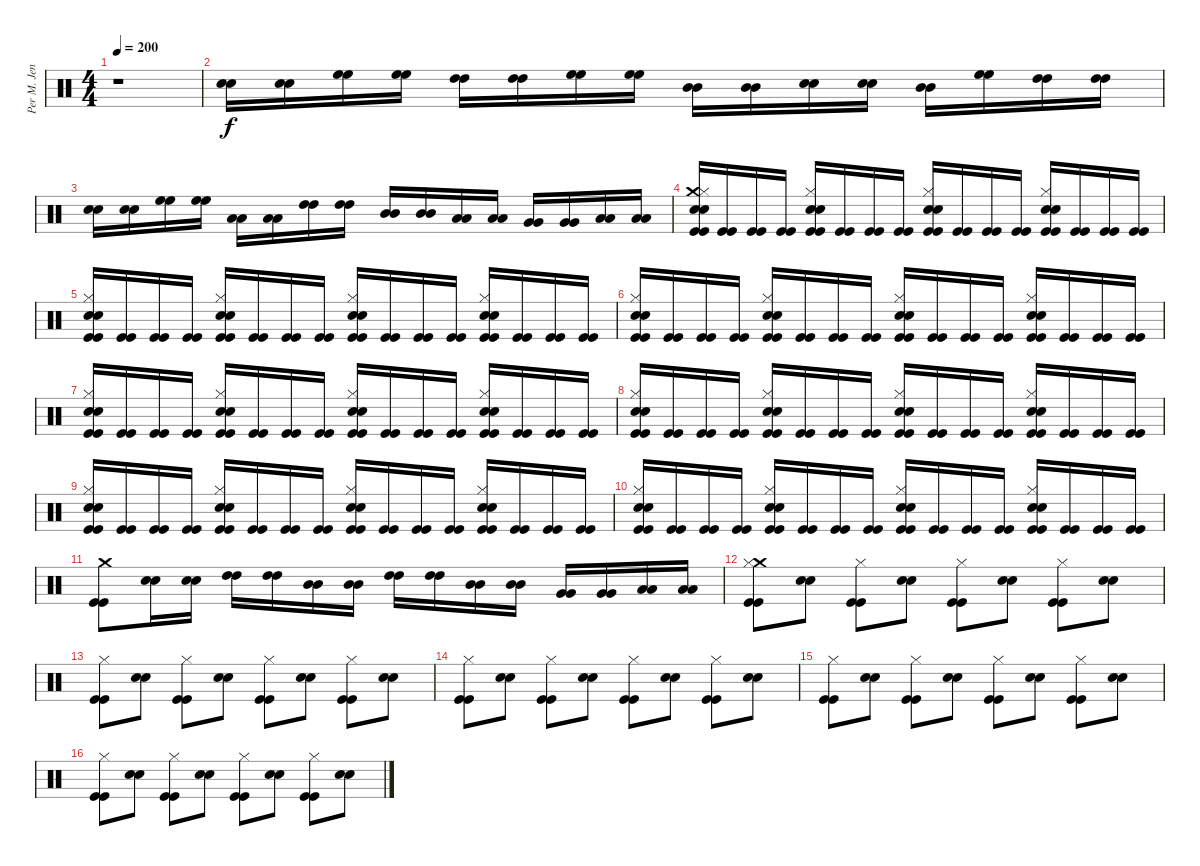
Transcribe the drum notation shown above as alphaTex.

\track ("Per M. Jensen" "Per M. Jen") {instrument percussion}
\staff {score}
\articulation defaults
\ts (4 4)
\tempo 200
\clef neutral
\ks c
r.1{dy f} |
("Snare (hit) 2" "Snare (hit) 2").16 ("Snare (hit) 2" "Snare (hit) 2").16 ("High Floor Tom (hit)" "High Floor Tom (hit)").16 ("High Floor Tom (hit)" "High Floor Tom (hit)").16 ("High Tom (hit)" "High Tom (hit)").16 ("High Tom (hit)" "High Tom (hit)").16 ("High Floor Tom (hit)" "High Floor Tom (hit)").16 ("High Floor Tom (hit)" "High Floor Tom (hit)").16 ("Mid Tom (hit)" "Mid Tom (hit)").16 ("Mid Tom (hit)" "Mid Tom (hit)").16 ("Snare (hit) 2" "Snare (hit) 2").16 ("Snare (hit) 2" "Snare (hit) 2").16 ("Mid Tom (hit)" "Mid Tom (hit)").16 ("High Floor Tom (hit)" "High Floor Tom (hit)").16 ("High Tom (hit)" "High Tom (hit)").16 ("High Tom (hit)" "High Tom (hit)").16 |
("Snare (hit) 2" "Snare (hit) 2").16 ("Snare (hit) 2" "Snare (hit) 2").16 ("High Floor Tom (hit)" "High Floor Tom (hit)").16 ("High Floor Tom (hit)" "High Floor Tom (hit)").16 ("Low Tom (hit)" "Low Tom (hit)").16 ("Low Tom (hit)" "Low Tom (hit)").16 ("High Tom (hit)" "High Tom (hit)").16 ("High Tom (hit)" "High Tom (hit)").16 ("Mid Tom (hit)" "Mid Tom (hit)").16 ("Mid Tom (hit)" "Mid Tom (hit)").16 ("Low Tom (hit)" "Low Tom (hit)").16 ("Low Tom (hit)" "Low Tom (hit)").16 ("Very Low Tom (hit)" "Very Low Tom (hit)").16 ("Very Low Tom (hit)" "Very Low Tom (hit)").16 ("Low Floor Tom (hit)" "Low Floor Tom (hit)").16 ("Low Floor Tom (hit)" "Low Floor Tom (hit)").16 |
("Crash medium (hit)" "Hi-Hat (closed)" "Snare (hit) 2" "Snare (hit) 2" "Kick (hit)" "Kick (hit)").16 ("Kick (hit)" "Kick (hit)").16 ("Kick (hit)" "Kick (hit)").16 ("Kick (hit)" "Kick (hit)").16 ("Hi-Hat (closed)" "Snare (hit) 2" "Snare (hit) 2" "Kick (hit)" "Kick (hit)").16 ("Kick (hit)" "Kick (hit)").16 ("Kick (hit)" "Kick (hit)").16 ("Kick (hit)" "Kick (hit)").16 ("Hi-Hat (closed)" "Snare (hit) 2" "Snare (hit) 2" "Kick (hit)" "Kick (hit)").16 ("Kick (hit)" "Kick (hit)").16 ("Kick (hit)" "Kick (hit)").16 ("Kick (hit)" "Kick (hit)").16 ("Hi-Hat (closed)" "Snare (hit) 2" "Snare (hit) 2" "Kick (hit)" "Kick (hit)").16 ("Kick (hit)" "Kick (hit)").16 ("Kick (hit)" "Kick (hit)").16 ("Kick (hit)" "Kick (hit)").16 |
("Hi-Hat (closed)" "Snare (hit) 2" "Snare (hit) 2" "Kick (hit)" "Kick (hit)").16 ("Kick (hit)" "Kick (hit)").16 ("Kick (hit)" "Kick (hit)").16 ("Kick (hit)" "Kick (hit)").16 ("Hi-Hat (closed)" "Snare (hit) 2" "Snare (hit) 2" "Kick (hit)" "Kick (hit)").16 ("Kick (hit)" "Kick (hit)").16 ("Kick (hit)" "Kick (hit)").16 ("Kick (hit)" "Kick (hit)").16 ("Hi-Hat (closed)" "Snare (hit) 2" "Snare (hit) 2" "Kick (hit)" "Kick (hit)").16 ("Kick (hit)" "Kick (hit)").16 ("Kick (hit)" "Kick (hit)").16 ("Kick (hit)" "Kick (hit)").16 ("Hi-Hat (closed)" "Snare (hit) 2" "Snare (hit) 2" "Kick (hit)" "Kick (hit)").16 ("Kick (hit)" "Kick (hit)").16 ("Kick (hit)" "Kick (hit)").16 ("Kick (hit)" "Kick (hit)").16 |
("Hi-Hat (closed)" "Snare (hit) 2" "Snare (hit) 2" "Kick (hit)" "Kick (hit)").16 ("Kick (hit)" "Kick (hit)").16 ("Kick (hit)" "Kick (hit)").16 ("Kick (hit)" "Kick (hit)").16 ("Hi-Hat (closed)" "Snare (hit) 2" "Snare (hit) 2" "Kick (hit)" "Kick (hit)").16 ("Kick (hit)" "Kick (hit)").16 ("Kick (hit)" "Kick (hit)").16 ("Kick (hit)" "Kick (hit)").16 ("Hi-Hat (closed)" "Snare (hit) 2" "Snare (hit) 2" "Kick (hit)" "Kick (hit)").16 ("Kick (hit)" "Kick (hit)").16 ("Kick (hit)" "Kick (hit)").16 ("Kick (hit)" "Kick (hit)").16 ("Hi-Hat (closed)" "Snare (hit) 2" "Snare (hit) 2" "Kick (hit)" "Kick (hit)").16 ("Kick (hit)" "Kick (hit)").16 ("Kick (hit)" "Kick (hit)").16 ("Kick (hit)" "Kick (hit)").16 |
("Hi-Hat (closed)" "Snare (hit) 2" "Snare (hit) 2" "Kick (hit)" "Kick (hit)").16 ("Kick (hit)" "Kick (hit)").16 ("Kick (hit)" "Kick (hit)").16 ("Kick (hit)" "Kick (hit)").16 ("Hi-Hat (closed)" "Snare (hit) 2" "Snare (hit) 2" "Kick (hit)" "Kick (hit)").16 ("Kick (hit)" "Kick (hit)").16 ("Kick (hit)" "Kick (hit)").16 ("Kick (hit)" "Kick (hit)").16 ("Hi-Hat (closed)" "Snare (hit) 2" "Snare (hit) 2" "Kick (hit)" "Kick (hit)").16 ("Kick (hit)" "Kick (hit)").16 ("Kick (hit)" "Kick (hit)").16 ("Kick (hit)" "Kick (hit)").16 ("Hi-Hat (closed)" "Snare (hit) 2" "Snare (hit) 2" "Kick (hit)" "Kick (hit)").16 ("Kick (hit)" "Kick (hit)").16 ("Kick (hit)" "Kick (hit)").16 ("Kick (hit)" "Kick (hit)").16 |
("Hi-Hat (closed)" "Snare (hit) 2" "Snare (hit) 2" "Kick (hit)" "Kick (hit)").16 ("Kick (hit)" "Kick (hit)").16 ("Kick (hit)" "Kick (hit)").16 ("Kick (hit)" "Kick (hit)").16 ("Hi-Hat (closed)" "Snare (hit) 2" "Snare (hit) 2" "Kick (hit)" "Kick (hit)").16 ("Kick (hit)" "Kick (hit)").16 ("Kick (hit)" "Kick (hit)").16 ("Kick (hit)" "Kick (hit)").16 ("Hi-Hat (closed)" "Snare (hit) 2" "Snare (hit) 2" "Kick (hit)" "Kick (hit)").16 ("Kick (hit)" "Kick (hit)").16 ("Kick (hit)" "Kick (hit)").16 ("Kick (hit)" "Kick (hit)").16 ("Hi-Hat (closed)" "Snare (hit) 2" "Snare (hit) 2" "Kick (hit)" "Kick (hit)").16 ("Kick (hit)" "Kick (hit)").16 ("Kick (hit)" "Kick (hit)").16 ("Kick (hit)" "Kick (hit)").16 |
("Hi-Hat (closed)" "Snare (hit) 2" "Snare (hit) 2" "Kick (hit)" "Kick (hit)").16 ("Kick (hit)" "Kick (hit)").16 ("Kick (hit)" "Kick (hit)").16 ("Kick (hit)" "Kick (hit)").16 ("Hi-Hat (closed)" "Snare (hit) 2" "Snare (hit) 2" "Kick (hit)" "Kick (hit)").16 ("Kick (hit)" "Kick (hit)").16 ("Kick (hit)" "Kick (hit)").16 ("Kick (hit)" "Kick (hit)").16 ("Hi-Hat (closed)" "Snare (hit) 2" "Snare (hit) 2" "Kick (hit)" "Kick (hit)").16 ("Kick (hit)" "Kick (hit)").16 ("Kick (hit)" "Kick (hit)").16 ("Kick (hit)" "Kick (hit)").16 ("Hi-Hat (closed)" "Snare (hit) 2" "Snare (hit) 2" "Kick (hit)" "Kick (hit)").16 ("Kick (hit)" "Kick (hit)").16 ("Kick (hit)" "Kick (hit)").16 ("Kick (hit)" "Kick (hit)").16 |
("Hi-Hat (closed)" "Snare (hit) 2" "Snare (hit) 2" "Kick (hit)" "Kick (hit)").16 ("Kick (hit)" "Kick (hit)").16 ("Kick (hit)" "Kick (hit)").16 ("Kick (hit)" "Kick (hit)").16 ("Hi-Hat (closed)" "Snare (hit) 2" "Snare (hit) 2" "Kick (hit)" "Kick (hit)").16 ("Kick (hit)" "Kick (hit)").16 ("Kick (hit)" "Kick (hit)").16 ("Kick (hit)" "Kick (hit)").16 ("Hi-Hat (closed)" "Snare (hit) 2" "Snare (hit) 2" "Kick (hit)" "Kick (hit)").16 ("Kick (hit)" "Kick (hit)").16 ("Kick (hit)" "Kick (hit)").16 ("Kick (hit)" "Kick (hit)").16 ("Hi-Hat (closed)" "Snare (hit) 2" "Snare (hit) 2" "Kick (hit)" "Kick (hit)").16 ("Kick (hit)" "Kick (hit)").16 ("Kick (hit)" "Kick (hit)").16 ("Kick (hit)" "Kick (hit)").16 |
("Crash medium (hit)" "Kick (hit)" "Kick (hit)").8 ("Snare (hit) 2" "Snare (hit) 2").16 ("Snare (hit) 2" "Snare (hit) 2").16 ("High Tom (hit)" "High Tom (hit)").16 ("High Tom (hit)" "High Tom (hit)").16 ("Mid Tom (hit)" "Mid Tom (hit)").16 ("Mid Tom (hit)" "Mid Tom (hit)").16 ("High Tom (hit)" "High Tom (hit)").16 ("High Tom (hit)" "High Tom (hit)").16 ("Mid Tom (hit)" "Mid Tom (hit)").16 ("Mid Tom (hit)" "Mid Tom (hit)").16 ("Very Low Tom (hit)" "Very Low Tom (hit)").16 ("Very Low Tom (hit)" "Very Low Tom (hit)").16 ("Low Floor Tom (hit)" "Low Floor Tom (hit)").16 ("Low Floor Tom (hit)" "Low Floor Tom (hit)").16 |
("Crash medium (hit)" "Hi-Hat (closed)" "Kick (hit)" "Kick (hit)").8 ("Snare (hit) 2" "Snare (hit) 2").8 ("Hi-Hat (closed)" "Kick (hit)" "Kick (hit)").8 ("Snare (hit) 2" "Snare (hit) 2").8 ("Hi-Hat (closed)" "Kick (hit)" "Kick (hit)").8 ("Snare (hit) 2" "Snare (hit) 2").8 ("Hi-Hat (closed)" "Kick (hit)" "Kick (hit)").8 ("Snare (hit) 2" "Snare (hit) 2").8 |
("Hi-Hat (closed)" "Kick (hit)" "Kick (hit)").8 ("Snare (hit) 2" "Snare (hit) 2").8 ("Hi-Hat (closed)" "Kick (hit)" "Kick (hit)").8 ("Snare (hit) 2" "Snare (hit) 2").8 ("Hi-Hat (closed)" "Kick (hit)" "Kick (hit)").8 ("Snare (hit) 2" "Snare (hit) 2").8 ("Hi-Hat (closed)" "Kick (hit)" "Kick (hit)").8 ("Snare (hit) 2" "Snare (hit) 2").8 |
("Hi-Hat (closed)" "Kick (hit)" "Kick (hit)").8 ("Snare (hit) 2" "Snare (hit) 2").8 ("Hi-Hat (closed)" "Kick (hit)" "Kick (hit)").8 ("Snare (hit) 2" "Snare (hit) 2").8 ("Hi-Hat (closed)" "Kick (hit)" "Kick (hit)").8 ("Snare (hit) 2" "Snare (hit) 2").8 ("Hi-Hat (closed)" "Kick (hit)" "Kick (hit)").8 ("Snare (hit) 2" "Snare (hit) 2").8 |
("Hi-Hat (closed)" "Kick (hit)" "Kick (hit)").8 ("Snare (hit) 2" "Snare (hit) 2").8 ("Hi-Hat (closed)" "Kick (hit)" "Kick (hit)").8 ("Snare (hit) 2" "Snare (hit) 2").8 ("Hi-Hat (closed)" "Kick (hit)" "Kick (hit)").8 ("Snare (hit) 2" "Snare (hit) 2").8 ("Hi-Hat (closed)" "Kick (hit)" "Kick (hit)").8 ("Snare (hit) 2" "Snare (hit) 2").8 |
("Hi-Hat (closed)" "Kick (hit)" "Kick (hit)").8 ("Snare (hit) 2" "Snare (hit) 2").8 ("Hi-Hat (closed)" "Kick (hit)" "Kick (hit)").8 ("Snare (hit) 2" "Snare (hit) 2").8 ("Hi-Hat (closed)" "Kick (hit)" "Kick (hit)").8 ("Snare (hit) 2" "Snare (hit) 2").8 ("Hi-Hat (closed)" "Kick (hit)" "Kick (hit)").8 ("Snare (hit) 2" "Snare (hit) 2").8
